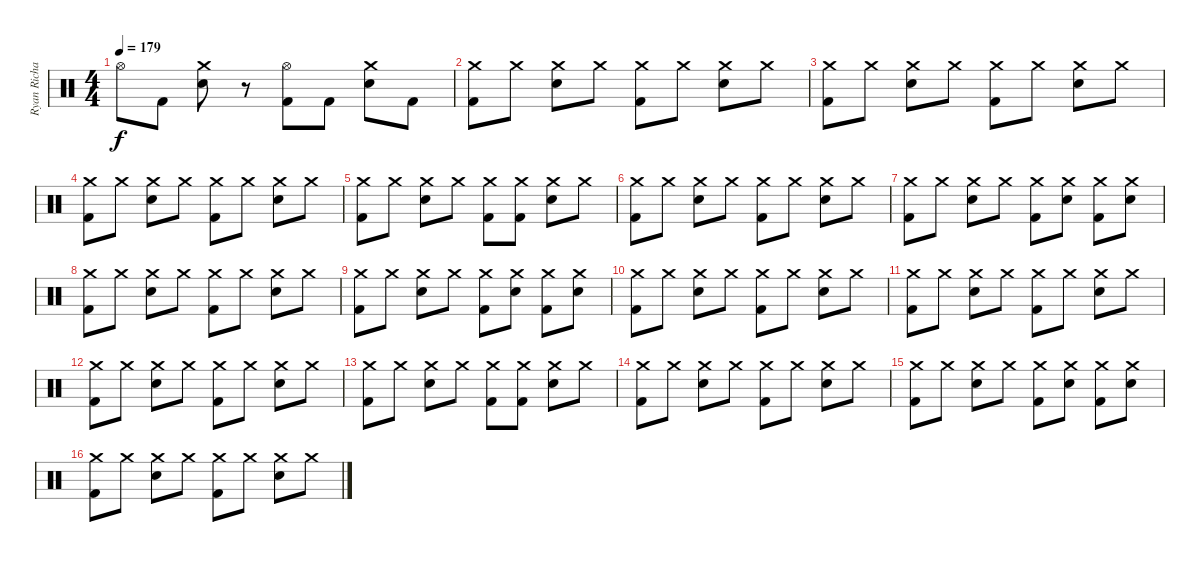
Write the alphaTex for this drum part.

\track ("Ryan Richards" "Ryan Richa") {instrument percussion}
\staff {score}
\articulation defaults
\ts (4 4)
\tempo 179
\clef neutral
\ks c "Hi-Hat (open)".8{dy f} "Kick (hit) 2".8
("Crash medium (hit)" "Snare (hit) 2").8 r.8 ("Hi-Hat (open)" "Kick (hit) 2").8 "Kick (hit) 2".8 ("Crash medium (hit)" "Snare (hit) 2").8 "Kick (hit) 2".8 |
("Crash medium (hit)" "Kick (hit) 2").8 "Crash medium (hit)".8 ("Crash medium (hit)" "Snare (hit) 2").8 "Crash medium (hit)".8 ("Crash medium (hit)" "Kick (hit) 2").8 "Crash medium (hit)".8 ("Crash medium (hit)" "Snare (hit) 2").8 "Crash medium (hit)".8 |
("Crash medium (hit)" "Kick (hit) 2").8 "Crash medium (hit)".8 ("Crash medium (hit)" "Snare (hit) 2").8 "Crash medium (hit)".8 ("Crash medium (hit)" "Kick (hit) 2").8 "Crash medium (hit)".8 ("Crash medium (hit)" "Snare (hit) 2").8 "Crash medium (hit)".8 |
("Crash medium (hit)" "Kick (hit) 2").8 "Crash medium (hit)".8 ("Crash medium (hit)" "Snare (hit) 2").8 "Crash medium (hit)".8 ("Crash medium (hit)" "Kick (hit) 2").8 "Crash medium (hit)".8 ("Crash medium (hit)" "Snare (hit) 2").8 "Crash medium (hit)".8 |
("Crash medium (hit)" "Kick (hit) 2").8 "Crash medium (hit)".8 ("Crash medium (hit)" "Snare (hit) 2").8 "Crash medium (hit)".8 ("Crash medium (hit)" "Kick (hit) 2").8 ("Crash medium (hit)" "Kick (hit) 2").8 ("Crash medium (hit)" "Snare (hit) 2").8 "Crash medium (hit)".8 |
("Crash medium (hit)" "Kick (hit) 2").8 "Crash medium (hit)".8 ("Crash medium (hit)" "Snare (hit) 2").8 "Crash medium (hit)".8 ("Crash medium (hit)" "Kick (hit) 2").8 "Crash medium (hit)".8 ("Crash medium (hit)" "Snare (hit) 2").8 "Crash medium (hit)".8 |
("Crash medium (hit)" "Kick (hit) 2").8 "Crash medium (hit)".8 ("Crash medium (hit)" "Snare (hit) 2").8 "Crash medium (hit)".8 ("Crash medium (hit)" "Kick (hit) 2").8 ("Crash medium (hit)" "Snare (hit) 2").8 ("Crash medium (hit)" "Kick (hit) 2").8 ("Crash medium (hit)" "Snare (hit) 2").8 |
("Crash medium (hit)" "Kick (hit) 2").8 "Crash medium (hit)".8 ("Crash medium (hit)" "Snare (hit) 2").8 "Crash medium (hit)".8 ("Crash medium (hit)" "Kick (hit) 2").8 "Crash medium (hit)".8 ("Crash medium (hit)" "Snare (hit) 2").8 "Crash medium (hit)".8 |
("Crash medium (hit)" "Kick (hit) 2").8 "Crash medium (hit)".8 ("Crash medium (hit)" "Snare (hit) 2").8 "Crash medium (hit)".8 ("Crash medium (hit)" "Kick (hit) 2").8 ("Crash medium (hit)" "Snare (hit) 2").8 ("Crash medium (hit)" "Kick (hit) 2").8 ("Crash medium (hit)" "Snare (hit) 2").8 |
("Crash medium (hit)" "Kick (hit) 2").8 "Crash medium (hit)".8 ("Crash medium (hit)" "Snare (hit) 2").8 "Crash medium (hit)".8 ("Crash medium (hit)" "Kick (hit) 2").8 "Crash medium (hit)".8 ("Crash medium (hit)" "Snare (hit) 2").8 "Crash medium (hit)".8 |
("Crash medium (hit)" "Kick (hit) 2").8 "Crash medium (hit)".8 ("Crash medium (hit)" "Snare (hit) 2").8 "Crash medium (hit)".8 ("Crash medium (hit)" "Kick (hit) 2").8 "Crash medium (hit)".8 ("Crash medium (hit)" "Snare (hit) 2").8 "Crash medium (hit)".8 |
("Crash medium (hit)" "Kick (hit) 2").8 "Crash medium (hit)".8 ("Crash medium (hit)" "Snare (hit) 2").8 "Crash medium (hit)".8 ("Crash medium (hit)" "Kick (hit) 2").8 "Crash medium (hit)".8 ("Crash medium (hit)" "Snare (hit) 2").8 "Crash medium (hit)".8 |
("Crash medium (hit)" "Kick (hit) 2").8 "Crash medium (hit)".8 ("Crash medium (hit)" "Snare (hit) 2").8 "Crash medium (hit)".8 ("Crash medium (hit)" "Kick (hit) 2").8 ("Crash medium (hit)" "Kick (hit) 2").8 ("Crash medium (hit)" "Snare (hit) 2").8 "Crash medium (hit)".8 |
("Crash medium (hit)" "Kick (hit) 2").8 "Crash medium (hit)".8 ("Crash medium (hit)" "Snare (hit) 2").8 "Crash medium (hit)".8 ("Crash medium (hit)" "Kick (hit) 2").8 "Crash medium (hit)".8 ("Crash medium (hit)" "Snare (hit) 2").8 "Crash medium (hit)".8 |
("Crash medium (hit)" "Kick (hit) 2").8 "Crash medium (hit)".8 ("Crash medium (hit)" "Snare (hit) 2").8 "Crash medium (hit)".8 ("Crash medium (hit)" "Kick (hit) 2").8 ("Crash medium (hit)" "Snare (hit) 2").8 ("Crash medium (hit)" "Kick (hit) 2").8 ("Crash medium (hit)" "Snare (hit) 2").8 |
("Crash medium (hit)" "Kick (hit) 2").8 "Crash medium (hit)".8 ("Crash medium (hit)" "Snare (hit) 2").8 "Crash medium (hit)".8 ("Crash medium (hit)" "Kick (hit) 2").8 "Crash medium (hit)".8 ("Crash medium (hit)" "Snare (hit) 2").8 "Crash medium (hit)".8
